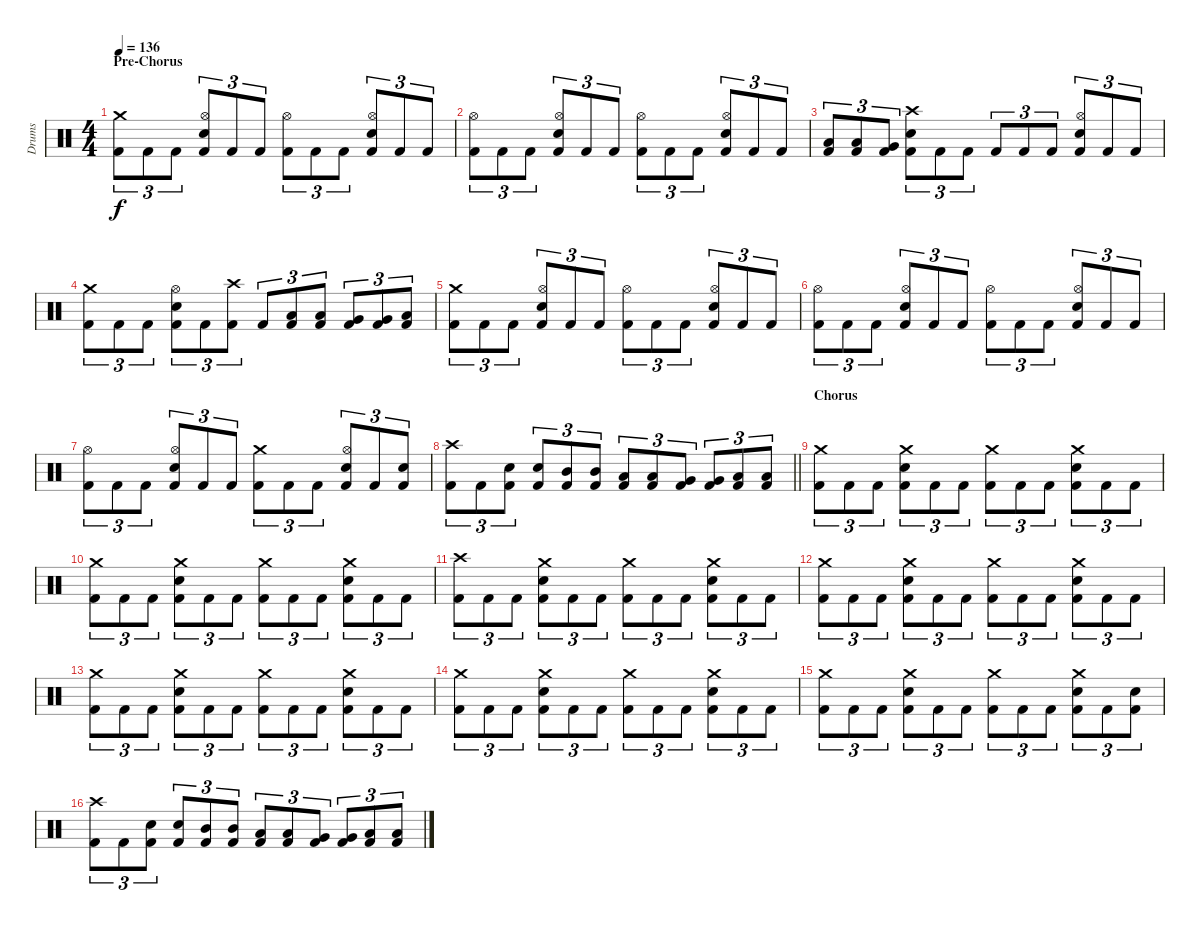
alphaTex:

\track ("Drums" "Drums") {instrument percussion}
\staff {score}
\articulation defaults
\ts (4 4)
\section ("" "Pre-Chorus")
\tempo 136
\clef neutral
\ks c
("Crash medium (hit)" "Kick (hit) 2").8{tu (3 2) dy f} "Kick (hit) 2".8{tu (3 2)} "Kick (hit) 2".8{tu (3 2)} ("Hi-Hat (open)" "Electric Snare (hit)" "Kick (hit) 2").8{tu (3 2)} "Kick (hit) 2".8{tu (3 2)} "Kick (hit) 2".8{tu (3 2)} ("Hi-Hat (open)" "Kick (hit) 2").8{tu (3 2)} "Kick (hit) 2".8{tu (3 2)} "Kick (hit) 2".8{tu (3 2)} ("Hi-Hat (open)" "Electric Snare (hit)" "Kick (hit) 2").8{tu (3 2)} "Kick (hit) 2".8{tu (3 2)} "Kick (hit) 2".8{tu (3 2)} |
("Hi-Hat (open)" "Kick (hit) 2").8{tu (3 2)} "Kick (hit) 2".8{tu (3 2)} "Kick (hit) 2".8{tu (3 2)} ("Hi-Hat (open)" "Electric Snare (hit)" "Kick (hit) 2").8{tu (3 2)} "Kick (hit) 2".8{tu (3 2)} "Kick (hit) 2".8{tu (3 2)} ("Hi-Hat (open)" "Kick (hit) 2").8{tu (3 2)} "Kick (hit) 2".8{tu (3 2)} "Kick (hit) 2".8{tu (3 2)} ("Hi-Hat (open)" "Electric Snare (hit)" "Kick (hit) 2").8{tu (3 2)} "Kick (hit) 2".8{tu (3 2)} "Kick (hit) 2".8{tu (3 2)} |
("Low Tom (hit)" "Kick (hit) 2").8{tu (3 2)} ("Low Tom (hit)" "Kick (hit) 2").8{tu (3 2)} ("Very Low Tom (hit)" "Kick (hit) 2").8{tu (3 2)} ("Crash high (hit)" "Electric Snare (hit)" "Kick (hit) 2").8{tu (3 2)} "Kick (hit) 2".8{tu (3 2)} "Kick (hit) 2".8{tu (3 2)} "Kick (hit) 2".8{tu (3 2)} "Kick (hit) 2".8{tu (3 2)} "Kick (hit) 2".8{tu (3 2)} ("Hi-Hat (open)" "Electric Snare (hit)" "Kick (hit) 2").8{tu (3 2)} "Kick (hit) 2".8{tu (3 2)} "Kick (hit) 2".8{tu (3 2)} |
("Crash medium (hit)" "Kick (hit) 2").8{tu (3 2)} "Kick (hit) 2".8{tu (3 2)} "Kick (hit) 2".8{tu (3 2)} ("Hi-Hat (open)" "Electric Snare (hit)" "Kick (hit) 2").8{tu (3 2)} "Kick (hit) 2".8{tu (3 2)} ("Crash high (hit)" "Kick (hit) 2").8{tu (3 2)} "Kick (hit) 2".8{tu (3 2)} ("Low Tom (hit)" "Kick (hit) 2").8{tu (3 2)} ("Low Tom (hit)" "Kick (hit) 2").8{tu (3 2)} ("Very Low Tom (hit)" "Kick (hit) 2").8{tu (3 2)} ("Very Low Tom (hit)" "Kick (hit) 2").8{tu (3 2)} ("Low Floor Tom (hit)" "Kick (hit) 2").8{tu (3 2)} |
("Crash medium (hit)" "Kick (hit) 2").8{tu (3 2)} "Kick (hit) 2".8{tu (3 2)} "Kick (hit) 2".8{tu (3 2)} ("Hi-Hat (open)" "Electric Snare (hit)" "Kick (hit) 2").8{tu (3 2)} "Kick (hit) 2".8{tu (3 2)} "Kick (hit) 2".8{tu (3 2)} ("Hi-Hat (open)" "Kick (hit) 2").8{tu (3 2)} "Kick (hit) 2".8{tu (3 2)} "Kick (hit) 2".8{tu (3 2)} ("Hi-Hat (open)" "Electric Snare (hit)" "Kick (hit) 2").8{tu (3 2)} "Kick (hit) 2".8{tu (3 2)} "Kick (hit) 2".8{tu (3 2)} |
("Hi-Hat (open)" "Kick (hit) 2").8{tu (3 2)} "Kick (hit) 2".8{tu (3 2)} "Kick (hit) 2".8{tu (3 2)} ("Hi-Hat (open)" "Electric Snare (hit)" "Kick (hit) 2").8{tu (3 2)} "Kick (hit) 2".8{tu (3 2)} "Kick (hit) 2".8{tu (3 2)} ("Hi-Hat (open)" "Kick (hit) 2").8{tu (3 2)} "Kick (hit) 2".8{tu (3 2)} "Kick (hit) 2".8{tu (3 2)} ("Hi-Hat (open)" "Electric Snare (hit)" "Kick (hit) 2").8{tu (3 2)} "Kick (hit) 2".8{tu (3 2)} "Kick (hit) 2".8{tu (3 2)} |
("Hi-Hat (open)" "Kick (hit) 2").8{tu (3 2)} "Kick (hit) 2".8{tu (3 2)} "Kick (hit) 2".8{tu (3 2)} ("Hi-Hat (open)" "Electric Snare (hit)" "Kick (hit) 2").8{tu (3 2)} "Kick (hit) 2".8{tu (3 2)} "Kick (hit) 2".8{tu (3 2)} ("Crash medium (hit)" "Kick (hit) 2").8{tu (3 2)} "Kick (hit) 2".8{tu (3 2)} "Kick (hit) 2".8{tu (3 2)} ("Hi-Hat (open)" "Electric Snare (hit)" "Kick (hit) 2").8{tu (3 2)} "Kick (hit) 2".8{tu (3 2)} ("Electric Snare (hit)" "Kick (hit) 2").8{tu (3 2)} |
\barLineRight lightlight
("Crash high (hit)" "Kick (hit) 2").8{tu (3 2)} "Kick (hit) 2".8{tu (3 2)} ("Electric Snare (hit)" "Kick (hit) 2").8{tu (3 2)} ("Electric Snare (hit)" "Kick (hit) 2").8{tu (3 2)} ("Mid Tom (hit)" "Kick (hit) 2").8{tu (3 2)} ("Mid Tom (hit)" "Kick (hit) 2").8{tu (3 2)} ("Low Tom (hit)" "Kick (hit) 2").8{tu (3 2)} ("Low Tom (hit)" "Kick (hit) 2").8{tu (3 2)} ("Very Low Tom (hit)" "Kick (hit) 2").8{tu (3 2)} ("Very Low Tom (hit)" "Kick (hit) 2").8{tu (3 2)} ("Low Floor Tom (hit)" "Kick (hit) 2").8{tu (3 2)} ("Low Floor Tom (hit)" "Kick (hit) 2").8{tu (3 2)} |
\section ("" "Chorus")
("Crash medium (hit)" "Kick (hit) 2").8{tu (3 2)} "Kick (hit) 2".8{tu (3 2)} "Kick (hit) 2".8{tu (3 2)} ("Crash medium (hit)" "Electric Snare (hit)" "Kick (hit) 2").8{tu (3 2)} "Kick (hit) 2".8{tu (3 2)} "Kick (hit) 2".8{tu (3 2)} ("Crash medium (hit)" "Kick (hit) 2").8{tu (3 2)} "Kick (hit) 2".8{tu (3 2)} "Kick (hit) 2".8{tu (3 2)} ("Crash medium (hit)" "Electric Snare (hit)" "Kick (hit) 2").8{tu (3 2)} "Kick (hit) 2".8{tu (3 2)} "Kick (hit) 2".8{tu (3 2)} |
("Crash medium (hit)" "Kick (hit) 2").8{tu (3 2)} "Kick (hit) 2".8{tu (3 2)} "Kick (hit) 2".8{tu (3 2)} ("Crash medium (hit)" "Electric Snare (hit)" "Kick (hit) 2").8{tu (3 2)} "Kick (hit) 2".8{tu (3 2)} "Kick (hit) 2".8{tu (3 2)} ("Crash medium (hit)" "Kick (hit) 2").8{tu (3 2)} "Kick (hit) 2".8{tu (3 2)} "Kick (hit) 2".8{tu (3 2)} ("Crash medium (hit)" "Electric Snare (hit)" "Kick (hit) 2").8{tu (3 2)} "Kick (hit) 2".8{tu (3 2)} "Kick (hit) 2".8{tu (3 2)} |
("Crash high (hit)" "Kick (hit) 2").8{tu (3 2)} "Kick (hit) 2".8{tu (3 2)} "Kick (hit) 2".8{tu (3 2)} ("Crash medium (hit)" "Electric Snare (hit)" "Kick (hit) 2").8{tu (3 2)} "Kick (hit) 2".8{tu (3 2)} "Kick (hit) 2".8{tu (3 2)} ("Crash medium (hit)" "Kick (hit) 2").8{tu (3 2)} "Kick (hit) 2".8{tu (3 2)} "Kick (hit) 2".8{tu (3 2)} ("Crash medium (hit)" "Electric Snare (hit)" "Kick (hit) 2").8{tu (3 2)} "Kick (hit) 2".8{tu (3 2)} "Kick (hit) 2".8{tu (3 2)} |
("Crash medium (hit)" "Kick (hit) 2").8{tu (3 2)} "Kick (hit) 2".8{tu (3 2)} "Kick (hit) 2".8{tu (3 2)} ("Crash medium (hit)" "Electric Snare (hit)" "Kick (hit) 2").8{tu (3 2)} "Kick (hit) 2".8{tu (3 2)} "Kick (hit) 2".8{tu (3 2)} ("Crash medium (hit)" "Kick (hit) 2").8{tu (3 2)} "Kick (hit) 2".8{tu (3 2)} "Kick (hit) 2".8{tu (3 2)} ("Crash medium (hit)" "Electric Snare (hit)" "Kick (hit) 2").8{tu (3 2)} "Kick (hit) 2".8{tu (3 2)} "Kick (hit) 2".8{tu (3 2)} |
("Crash medium (hit)" "Kick (hit) 2").8{tu (3 2)} "Kick (hit) 2".8{tu (3 2)} "Kick (hit) 2".8{tu (3 2)} ("Crash medium (hit)" "Electric Snare (hit)" "Kick (hit) 2").8{tu (3 2)} "Kick (hit) 2".8{tu (3 2)} "Kick (hit) 2".8{tu (3 2)} ("Crash medium (hit)" "Kick (hit) 2").8{tu (3 2)} "Kick (hit) 2".8{tu (3 2)} "Kick (hit) 2".8{tu (3 2)} ("Crash medium (hit)" "Electric Snare (hit)" "Kick (hit) 2").8{tu (3 2)} "Kick (hit) 2".8{tu (3 2)} "Kick (hit) 2".8{tu (3 2)} |
("Crash medium (hit)" "Kick (hit) 2").8{tu (3 2)} "Kick (hit) 2".8{tu (3 2)} "Kick (hit) 2".8{tu (3 2)} ("Crash medium (hit)" "Electric Snare (hit)" "Kick (hit) 2").8{tu (3 2)} "Kick (hit) 2".8{tu (3 2)} "Kick (hit) 2".8{tu (3 2)} ("Crash medium (hit)" "Kick (hit) 2").8{tu (3 2)} "Kick (hit) 2".8{tu (3 2)} "Kick (hit) 2".8{tu (3 2)} ("Crash medium (hit)" "Electric Snare (hit)" "Kick (hit) 2").8{tu (3 2)} "Kick (hit) 2".8{tu (3 2)} "Kick (hit) 2".8{tu (3 2)} |
("Crash medium (hit)" "Kick (hit) 2").8{tu (3 2)} "Kick (hit) 2".8{tu (3 2)} "Kick (hit) 2".8{tu (3 2)} ("Crash medium (hit)" "Electric Snare (hit)" "Kick (hit) 2").8{tu (3 2)} "Kick (hit) 2".8{tu (3 2)} "Kick (hit) 2".8{tu (3 2)} ("Crash medium (hit)" "Kick (hit) 2").8{tu (3 2)} "Kick (hit) 2".8{tu (3 2)} "Kick (hit) 2".8{tu (3 2)} ("Crash medium (hit)" "Electric Snare (hit)" "Kick (hit) 2").8{tu (3 2)} "Kick (hit) 2".8{tu (3 2)} ("Electric Snare (hit)" "Kick (hit) 2").8{tu (3 2)} |
("Crash high (hit)" "Kick (hit) 2").8{tu (3 2)} "Kick (hit) 2".8{tu (3 2)} ("Electric Snare (hit)" "Kick (hit) 2").8{tu (3 2)} ("Electric Snare (hit)" "Kick (hit) 2").8{tu (3 2)} ("Mid Tom (hit)" "Kick (hit) 2").8{tu (3 2)} ("Mid Tom (hit)" "Kick (hit) 2").8{tu (3 2)} ("Low Tom (hit)" "Kick (hit) 2").8{tu (3 2)} ("Low Tom (hit)" "Kick (hit) 2").8{tu (3 2)} ("Very Low Tom (hit)" "Kick (hit) 2").8{tu (3 2)} ("Very Low Tom (hit)" "Kick (hit) 2").8{tu (3 2)} ("Low Floor Tom (hit)" "Kick (hit) 2").8{tu (3 2)} ("Low Floor Tom (hit)" "Kick (hit) 2").8{tu (3 2)}
